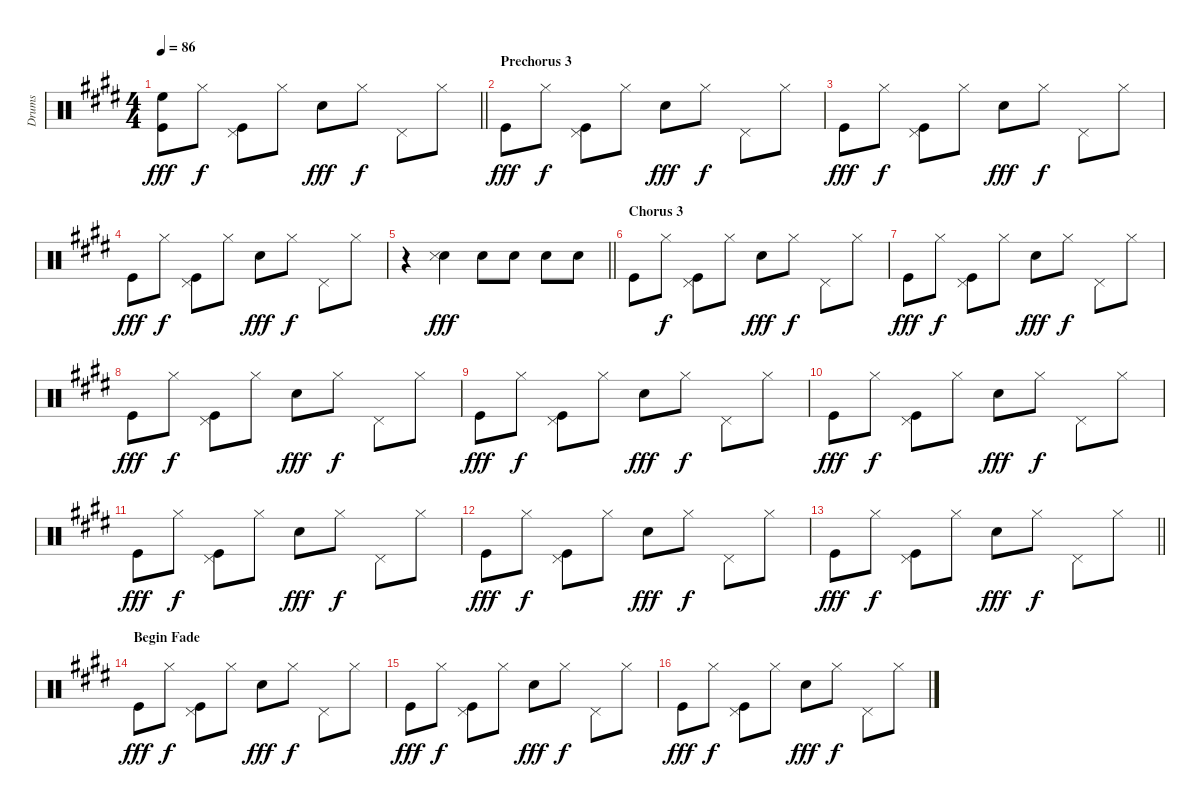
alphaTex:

\track ("Drums" "Drums") {instrument percussion}
\staff {score}
\articulation defaults
\ts (4 4)
\tempo 86
\clef neutral
\barLineRight lightlight
\ks e
("Kick (hit)" "High Floor Tom (hit)").8{dy fff} "Hi-Hat (closed)".8{dy f} ("Kick (hit)" "Pedal Hi-Hat (hit)").8 "Hi-Hat (closed)".8 "Snare (hit) 2".8{dy fff} "Hi-Hat (closed)".8{dy f} "Pedal Hi-Hat (hit)".8 "Hi-Hat (closed)".8 |
\section ("" "Prechorus 3")
"Kick (hit)".8{dy fff} "Hi-Hat (closed)".8{dy f} ("Kick (hit)" "Pedal Hi-Hat (hit)").8 "Hi-Hat (closed)".8 "Snare (hit) 2".8{dy fff} "Hi-Hat (closed)".8{dy f} "Pedal Hi-Hat (hit)".8 "Hi-Hat (closed)".8 |
"Kick (hit)".8{dy fff} "Hi-Hat (closed)".8{dy f} ("Kick (hit)" "Pedal Hi-Hat (hit)").8 "Hi-Hat (closed)".8 "Snare (hit) 2".8{dy fff} "Hi-Hat (closed)".8{dy f} "Pedal Hi-Hat (hit)".8 "Hi-Hat (closed)".8 |
"Kick (hit)".8{dy fff} "Hi-Hat (closed)".8{dy f} ("Kick (hit)" "Pedal Hi-Hat (hit)").8 "Hi-Hat (closed)".8 "Snare (hit) 2".8{dy fff} "Hi-Hat (closed)".8{dy f} "Pedal Hi-Hat (hit)".8 "Hi-Hat (closed)".8 |
\barLineRight lightlight
r.4 ("Snare (hit) 2" "Snare (side stick) 3").4{dy fff} "Snare (hit) 2".8 "Snare (hit) 2".8 "Snare (hit) 2".8 "Snare (hit) 2".8 |
\section ("" "Chorus 3")
"Kick (hit)".8 "Hi-Hat (closed)".8{dy f} ("Kick (hit)" "Pedal Hi-Hat (hit)").8 "Hi-Hat (closed)".8 "Snare (hit) 2".8{dy fff} "Hi-Hat (closed)".8{dy f} "Pedal Hi-Hat (hit)".8 "Hi-Hat (closed)".8 |
"Kick (hit)".8{dy fff} "Hi-Hat (closed)".8{dy f} ("Kick (hit)" "Pedal Hi-Hat (hit)").8 "Hi-Hat (closed)".8 "Snare (hit) 2".8{dy fff} "Hi-Hat (closed)".8{dy f} "Pedal Hi-Hat (hit)".8 "Hi-Hat (closed)".8 |
"Kick (hit)".8{dy fff} "Hi-Hat (closed)".8{dy f} ("Kick (hit)" "Pedal Hi-Hat (hit)").8 "Hi-Hat (closed)".8 "Snare (hit) 2".8{dy fff} "Hi-Hat (closed)".8{dy f} "Pedal Hi-Hat (hit)".8 "Hi-Hat (closed)".8 |
"Kick (hit)".8{dy fff} "Hi-Hat (closed)".8{dy f} ("Kick (hit)" "Pedal Hi-Hat (hit)").8 "Hi-Hat (closed)".8 "Snare (hit) 2".8{dy fff} "Hi-Hat (closed)".8{dy f} "Pedal Hi-Hat (hit)".8 "Hi-Hat (closed)".8 |
"Kick (hit)".8{dy fff} "Hi-Hat (closed)".8{dy f} ("Kick (hit)" "Pedal Hi-Hat (hit)").8 "Hi-Hat (closed)".8 "Snare (hit) 2".8{dy fff} "Hi-Hat (closed)".8{dy f} "Pedal Hi-Hat (hit)".8 "Hi-Hat (closed)".8 |
"Kick (hit)".8{dy fff} "Hi-Hat (closed)".8{dy f} ("Kick (hit)" "Pedal Hi-Hat (hit)").8 "Hi-Hat (closed)".8 "Snare (hit) 2".8{dy fff} "Hi-Hat (closed)".8{dy f} "Pedal Hi-Hat (hit)".8 "Hi-Hat (closed)".8 |
"Kick (hit)".8{dy fff} "Hi-Hat (closed)".8{dy f} ("Kick (hit)" "Pedal Hi-Hat (hit)").8 "Hi-Hat (closed)".8 "Snare (hit) 2".8{dy fff} "Hi-Hat (closed)".8{dy f} "Pedal Hi-Hat (hit)".8 "Hi-Hat (closed)".8 |
\barLineRight lightlight "Kick (hit)".8{dy fff} "Hi-Hat (closed)".8{dy f}
("Kick (hit)" "Pedal Hi-Hat (hit)").8 "Hi-Hat (closed)".8 "Snare (hit) 2".8{dy fff} "Hi-Hat (closed)".8{dy f} "Pedal Hi-Hat (hit)".8 "Hi-Hat (closed)".8 |
\section ("" "Begin Fade")
"Kick (hit)".8{dy fff} "Hi-Hat (closed)".8{dy f} ("Kick (hit)" "Pedal Hi-Hat (hit)").8 "Hi-Hat (closed)".8 "Snare (hit) 2".8{dy fff} "Hi-Hat (closed)".8{dy f} "Pedal Hi-Hat (hit)".8 "Hi-Hat (closed)".8 |
"Kick (hit)".8{dy fff} "Hi-Hat (closed)".8{dy f} ("Kick (hit)" "Pedal Hi-Hat (hit)").8 "Hi-Hat (closed)".8 "Snare (hit) 2".8{dy fff} "Hi-Hat (closed)".8{dy f} "Pedal Hi-Hat (hit)".8 "Hi-Hat (closed)".8 |
"Kick (hit)".8{dy fff} "Hi-Hat (closed)".8{dy f} ("Kick (hit)" "Pedal Hi-Hat (hit)").8 "Hi-Hat (closed)".8 "Snare (hit) 2".8{dy fff} "Hi-Hat (closed)".8{dy f} "Pedal Hi-Hat (hit)".8 "Hi-Hat (closed)".8
